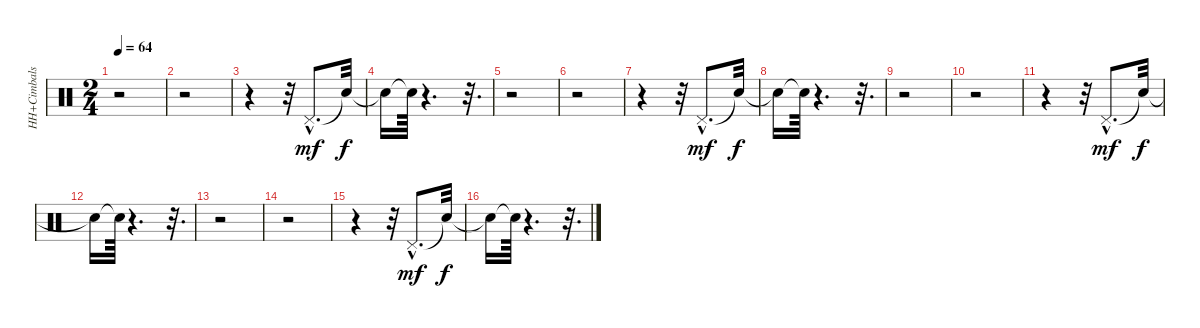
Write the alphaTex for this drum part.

\track ("HH+Cimbals" "HH+Cimbals") {instrument percussion}
\staff {score}
\articulation defaults
\ts (2 4)
\tempo 64
\clef neutral
\ks c
r.2{dy f} |
r.2 |
r.4 r.32 "Pedal Hi-Hat (hit)"{hac}.8{d dy mf} "Snare (hit)"{t}.32{dy f} |
"Snare (hit)"{t}.16 "Snare (hit)"{t}.64 r.4{d} r.32{d} |
r.2 |
r.2 |
r.4 r.32 "Pedal Hi-Hat (hit)"{hac}.8{d dy mf} "Snare (hit)"{t}.32{dy f} |
"Snare (hit)"{t}.16 "Snare (hit)"{t}.64 r.4{d} r.32{d} |
r.2 |
r.2 |
r.4 r.32 "Pedal Hi-Hat (hit)"{hac}.8{d dy mf} "Snare (hit)"{t}.32{dy f} |
"Snare (hit)"{t}.16 "Snare (hit)"{t}.64 r.4{d} r.32{d} |
r.2 |
r.2 |
r.4 r.32 "Pedal Hi-Hat (hit)"{hac}.8{d dy mf} "Snare (hit)"{t}.32{dy f} |
"Snare (hit)"{t}.16 "Snare (hit)"{t}.64 r.4{d} r.32{d}
